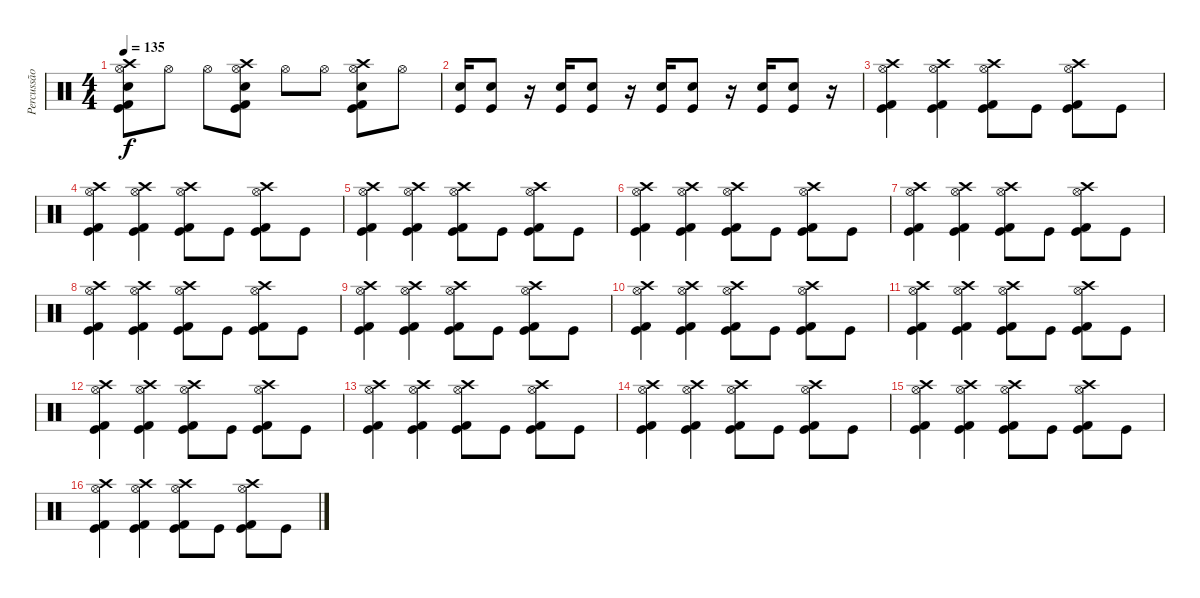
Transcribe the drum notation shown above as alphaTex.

\track ("Percussão" "Percussão") {instrument percussion}
\staff {score}
\articulation defaults
\ts (4 4)
\tempo 135
\clef neutral
\ks c
("Kick (hit)" "Hi-Hat (open)" "Kick (hit) 2" "Electric Snare (hit)" "Crash high (hit)").8{dy f} "Hi-Hat (open)".8 "Hi-Hat (open)".8 ("Kick (hit)" "Hi-Hat (open)" "Kick (hit) 2" "Electric Snare (hit)" "Crash high (hit)").8 "Hi-Hat (open)".8 "Hi-Hat (open)".8 ("Kick (hit)" "Hi-Hat (open)" "Kick (hit) 2" "Electric Snare (hit)" "Crash high (hit)").8 "Hi-Hat (open)".8 |
("Kick (hit)" "Electric Snare (hit)").16 ("Kick (hit)" "Electric Snare (hit)").8 r.16 ("Kick (hit)" "Electric Snare (hit)").16 ("Kick (hit)" "Electric Snare (hit)").8 r.16 ("Kick (hit)" "Electric Snare (hit)").16 ("Kick (hit)" "Electric Snare (hit)").8 r.16 ("Kick (hit)" "Electric Snare (hit)").16 ("Kick (hit)" "Electric Snare (hit)").8 r.16 |
("Kick (hit)" "Hi-Hat (open)" "Kick (hit) 2" "Crash high (hit)").4 ("Kick (hit)" "Hi-Hat (open)" "Kick (hit) 2" "Crash high (hit)").4 ("Kick (hit)" "Hi-Hat (open)" "Kick (hit) 2" "Crash high (hit)").8 "Kick (hit)".8 ("Kick (hit)" "Hi-Hat (open)" "Kick (hit) 2" "Crash high (hit)").8 "Kick (hit)".8 |
("Kick (hit)" "Hi-Hat (open)" "Kick (hit) 2" "Crash high (hit)").4 ("Kick (hit)" "Hi-Hat (open)" "Kick (hit) 2" "Crash high (hit)").4 ("Kick (hit)" "Hi-Hat (open)" "Kick (hit) 2" "Crash high (hit)").8 "Kick (hit)".8 ("Kick (hit)" "Hi-Hat (open)" "Kick (hit) 2" "Crash high (hit)").8 "Kick (hit)".8 |
("Kick (hit)" "Hi-Hat (open)" "Kick (hit) 2" "Crash high (hit)").4 ("Kick (hit)" "Hi-Hat (open)" "Kick (hit) 2" "Crash high (hit)").4 ("Kick (hit)" "Hi-Hat (open)" "Kick (hit) 2" "Crash high (hit)").8 "Kick (hit)".8 ("Kick (hit)" "Hi-Hat (open)" "Kick (hit) 2" "Crash high (hit)").8 "Kick (hit)".8 |
("Kick (hit)" "Hi-Hat (open)" "Kick (hit) 2" "Crash high (hit)").4 ("Kick (hit)" "Hi-Hat (open)" "Kick (hit) 2" "Crash high (hit)").4 ("Kick (hit)" "Hi-Hat (open)" "Kick (hit) 2" "Crash high (hit)").8 "Kick (hit)".8 ("Kick (hit)" "Hi-Hat (open)" "Kick (hit) 2" "Crash high (hit)").8 "Kick (hit)".8 |
("Kick (hit)" "Hi-Hat (open)" "Kick (hit) 2" "Crash high (hit)").4 ("Kick (hit)" "Hi-Hat (open)" "Kick (hit) 2" "Crash high (hit)").4 ("Kick (hit)" "Hi-Hat (open)" "Kick (hit) 2" "Crash high (hit)").8 "Kick (hit)".8 ("Kick (hit)" "Hi-Hat (open)" "Kick (hit) 2" "Crash high (hit)").8 "Kick (hit)".8 |
("Kick (hit)" "Hi-Hat (open)" "Kick (hit) 2" "Crash high (hit)").4 ("Kick (hit)" "Hi-Hat (open)" "Kick (hit) 2" "Crash high (hit)").4 ("Kick (hit)" "Hi-Hat (open)" "Kick (hit) 2" "Crash high (hit)").8 "Kick (hit)".8 ("Kick (hit)" "Hi-Hat (open)" "Kick (hit) 2" "Crash high (hit)").8 "Kick (hit)".8 |
("Kick (hit)" "Hi-Hat (open)" "Kick (hit) 2" "Crash high (hit)").4 ("Kick (hit)" "Hi-Hat (open)" "Kick (hit) 2" "Crash high (hit)").4 ("Kick (hit)" "Hi-Hat (open)" "Kick (hit) 2" "Crash high (hit)").8 "Kick (hit)".8 ("Kick (hit)" "Hi-Hat (open)" "Kick (hit) 2" "Crash high (hit)").8 "Kick (hit)".8 |
("Kick (hit)" "Hi-Hat (open)" "Kick (hit) 2" "Crash high (hit)").4 ("Kick (hit)" "Hi-Hat (open)" "Kick (hit) 2" "Crash high (hit)").4 ("Kick (hit)" "Hi-Hat (open)" "Kick (hit) 2" "Crash high (hit)").8 "Kick (hit)".8 ("Kick (hit)" "Hi-Hat (open)" "Kick (hit) 2" "Crash high (hit)").8 "Kick (hit)".8 |
("Kick (hit)" "Hi-Hat (open)" "Kick (hit) 2" "Crash high (hit)").4 ("Kick (hit)" "Hi-Hat (open)" "Kick (hit) 2" "Crash high (hit)").4 ("Kick (hit)" "Hi-Hat (open)" "Kick (hit) 2" "Crash high (hit)").8 "Kick (hit)".8 ("Kick (hit)" "Hi-Hat (open)" "Kick (hit) 2" "Crash high (hit)").8 "Kick (hit)".8 |
("Kick (hit)" "Hi-Hat (open)" "Kick (hit) 2" "Crash high (hit)").4 ("Kick (hit)" "Hi-Hat (open)" "Kick (hit) 2" "Crash high (hit)").4 ("Kick (hit)" "Hi-Hat (open)" "Kick (hit) 2" "Crash high (hit)").8 "Kick (hit)".8 ("Kick (hit)" "Hi-Hat (open)" "Kick (hit) 2" "Crash high (hit)").8 "Kick (hit)".8 |
("Kick (hit)" "Hi-Hat (open)" "Kick (hit) 2" "Crash high (hit)").4 ("Kick (hit)" "Hi-Hat (open)" "Kick (hit) 2" "Crash high (hit)").4 ("Kick (hit)" "Hi-Hat (open)" "Kick (hit) 2" "Crash high (hit)").8 "Kick (hit)".8 ("Kick (hit)" "Hi-Hat (open)" "Kick (hit) 2" "Crash high (hit)").8 "Kick (hit)".8 |
("Kick (hit)" "Hi-Hat (open)" "Kick (hit) 2" "Crash high (hit)").4 ("Kick (hit)" "Hi-Hat (open)" "Kick (hit) 2" "Crash high (hit)").4 ("Kick (hit)" "Hi-Hat (open)" "Kick (hit) 2" "Crash high (hit)").8 "Kick (hit)".8 ("Kick (hit)" "Hi-Hat (open)" "Kick (hit) 2" "Crash high (hit)").8 "Kick (hit)".8 |
("Kick (hit)" "Hi-Hat (open)" "Kick (hit) 2" "Crash high (hit)").4 ("Kick (hit)" "Hi-Hat (open)" "Kick (hit) 2" "Crash high (hit)").4 ("Kick (hit)" "Hi-Hat (open)" "Kick (hit) 2" "Crash high (hit)").8 "Kick (hit)".8 ("Kick (hit)" "Hi-Hat (open)" "Kick (hit) 2" "Crash high (hit)").8 "Kick (hit)".8 |
("Kick (hit)" "Hi-Hat (open)" "Kick (hit) 2" "Crash high (hit)").4 ("Kick (hit)" "Hi-Hat (open)" "Kick (hit) 2" "Crash high (hit)").4 ("Kick (hit)" "Hi-Hat (open)" "Kick (hit) 2" "Crash high (hit)").8 "Kick (hit)".8 ("Kick (hit)" "Hi-Hat (open)" "Kick (hit) 2" "Crash high (hit)").8 "Kick (hit)".8
